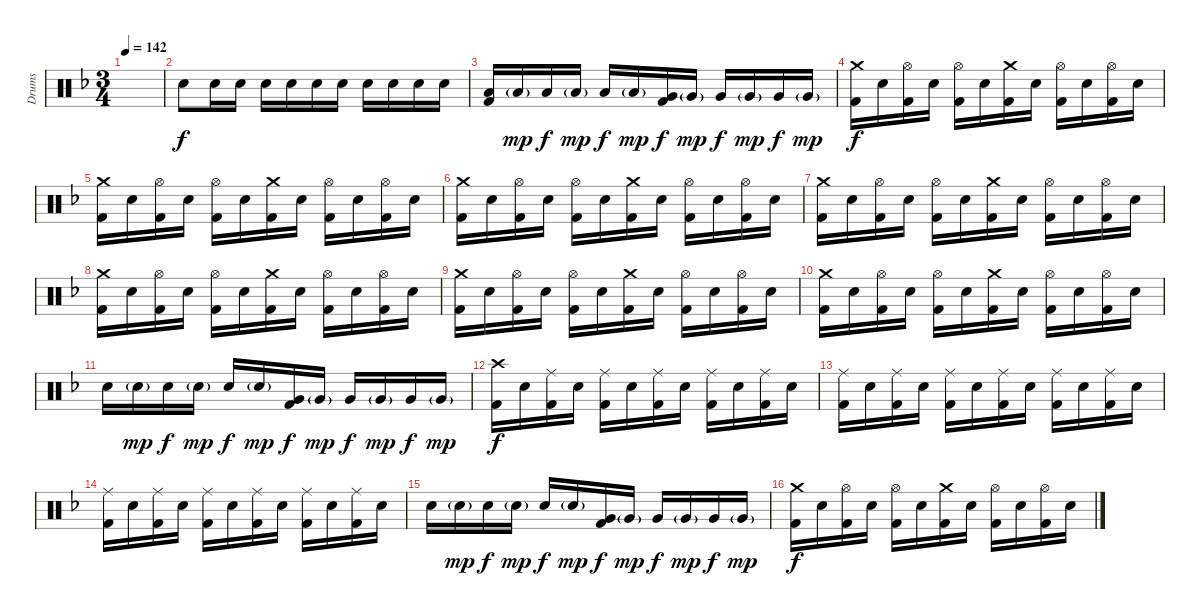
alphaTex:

\track ("Drums" "Drums") {instrument percussion}
\staff {score}
\articulation defaults
\ts (3 4)
\tempo 142
\clef neutral
\ks dminor
|
"Electric Snare (hit)".8 "Electric Snare (hit)".16 "Electric Snare (hit)".16 "Electric Snare (hit)".16 "Electric Snare (hit)".16 "Electric Snare (hit)".16 "Electric Snare (hit)".16 "Electric Snare (hit)".16 "Electric Snare (hit)".16 "Electric Snare (hit)".16 "Electric Snare (hit)".16 |
("Low Tom (hit)" "Kick (hit) 2").16 "Low Tom (hit)"{g}.16{dy mp} "Low Tom (hit)".16{dy f} "Low Tom (hit)"{g}.16{dy mp} "Low Tom (hit)".16{dy f} "Low Tom (hit)"{g}.16{dy mp} ("Very Low Tom (hit)" "Kick (hit) 2").16{dy f} "Very Low Tom (hit)"{g}.16{dy mp} "Very Low Tom (hit)".16{dy f} "Very Low Tom (hit)"{g}.16{dy mp} "Very Low Tom (hit)".16{dy f} "Very Low Tom (hit)"{g}.16{dy mp} |
("Crash medium (hit)" "Kick (hit) 2").16{dy f} "Electric Snare (hit)".16 ("Hi-Hat (open)" "Kick (hit) 2").16 "Electric Snare (hit)".16 ("Hi-Hat (open)" "Kick (hit) 2").16 "Electric Snare (hit)".16 ("Crash medium (hit)" "Kick (hit) 2").16 "Electric Snare (hit)".16 ("Hi-Hat (open)" "Kick (hit) 2").16 "Electric Snare (hit)".16 ("Hi-Hat (open)" "Kick (hit) 2").16 "Electric Snare (hit)".16 |
("Crash medium (hit)" "Kick (hit) 2").16 "Electric Snare (hit)".16 ("Hi-Hat (open)" "Kick (hit) 2").16 "Electric Snare (hit)".16 ("Hi-Hat (open)" "Kick (hit) 2").16 "Electric Snare (hit)".16 ("Crash medium (hit)" "Kick (hit) 2").16 "Electric Snare (hit)".16 ("Hi-Hat (open)" "Kick (hit) 2").16 "Electric Snare (hit)".16 ("Hi-Hat (open)" "Kick (hit) 2").16 "Electric Snare (hit)".16 |
("Crash medium (hit)" "Kick (hit) 2").16 "Electric Snare (hit)".16 ("Hi-Hat (open)" "Kick (hit) 2").16 "Electric Snare (hit)".16 ("Hi-Hat (open)" "Kick (hit) 2").16 "Electric Snare (hit)".16 ("Crash medium (hit)" "Kick (hit) 2").16 "Electric Snare (hit)".16 ("Hi-Hat (open)" "Kick (hit) 2").16 "Electric Snare (hit)".16 ("Hi-Hat (open)" "Kick (hit) 2").16 "Electric Snare (hit)".16 |
("Crash medium (hit)" "Kick (hit) 2").16 "Electric Snare (hit)".16 ("Hi-Hat (open)" "Kick (hit) 2").16 "Electric Snare (hit)".16 ("Hi-Hat (open)" "Kick (hit) 2").16 "Electric Snare (hit)".16 ("Crash medium (hit)" "Kick (hit) 2").16 "Electric Snare (hit)".16 ("Hi-Hat (open)" "Kick (hit) 2").16 "Electric Snare (hit)".16 ("Hi-Hat (open)" "Kick (hit) 2").16 "Electric Snare (hit)".16 |
("Crash medium (hit)" "Kick (hit) 2").16 "Electric Snare (hit)".16 ("Hi-Hat (open)" "Kick (hit) 2").16 "Electric Snare (hit)".16 ("Hi-Hat (open)" "Kick (hit) 2").16 "Electric Snare (hit)".16 ("Crash medium (hit)" "Kick (hit) 2").16 "Electric Snare (hit)".16 ("Hi-Hat (open)" "Kick (hit) 2").16 "Electric Snare (hit)".16 ("Hi-Hat (open)" "Kick (hit) 2").16 "Electric Snare (hit)".16 |
("Crash medium (hit)" "Kick (hit) 2").16 "Electric Snare (hit)".16 ("Hi-Hat (open)" "Kick (hit) 2").16 "Electric Snare (hit)".16 ("Hi-Hat (open)" "Kick (hit) 2").16 "Electric Snare (hit)".16 ("Crash medium (hit)" "Kick (hit) 2").16 "Electric Snare (hit)".16 ("Hi-Hat (open)" "Kick (hit) 2").16 "Electric Snare (hit)".16 ("Hi-Hat (open)" "Kick (hit) 2").16 "Electric Snare (hit)".16 |
("Crash medium (hit)" "Kick (hit) 2").16 "Electric Snare (hit)".16 ("Hi-Hat (open)" "Kick (hit) 2").16 "Electric Snare (hit)".16 ("Hi-Hat (open)" "Kick (hit) 2").16 "Electric Snare (hit)".16 ("Crash medium (hit)" "Kick (hit) 2").16 "Electric Snare (hit)".16 ("Hi-Hat (open)" "Kick (hit) 2").16 "Electric Snare (hit)".16 ("Hi-Hat (open)" "Kick (hit) 2").16 "Electric Snare (hit)".16 |
"Electric Snare (hit)".16 "Electric Snare (hit)"{g}.16{dy mp} "Electric Snare (hit)".16{dy f} "Electric Snare (hit)"{g}.16{dy mp} "Electric Snare (hit)".16{dy f} "Electric Snare (hit)"{g}.16{dy mp} ("Very Low Tom (hit)" "Kick (hit) 2").16{dy f} "Very Low Tom (hit)"{g}.16{dy mp} "Very Low Tom (hit)".16{dy f} "Very Low Tom (hit)"{g}.16{dy mp} "Very Low Tom (hit)".16{dy f} "Very Low Tom (hit)"{g}.16{dy mp} |
("Crash high (hit)" "Kick (hit) 2").16{dy f} "Electric Snare (hit)".16 ("Ride (middle)" "Kick (hit) 2").16 "Electric Snare (hit)".16 ("Ride (middle)" "Kick (hit) 2").16 "Electric Snare (hit)".16 ("Ride (middle)" "Kick (hit) 2").16 "Electric Snare (hit)".16 ("Ride (middle)" "Kick (hit) 2").16 "Electric Snare (hit)".16 ("Ride (middle)" "Kick (hit) 2").16 "Electric Snare (hit)".16 |
("Ride (middle)" "Kick (hit) 2").16 "Electric Snare (hit)".16 ("Ride (middle)" "Kick (hit) 2").16 "Electric Snare (hit)".16 ("Ride (middle)" "Kick (hit) 2").16 "Electric Snare (hit)".16 ("Ride (middle)" "Kick (hit) 2").16 "Electric Snare (hit)".16 ("Ride (middle)" "Kick (hit) 2").16 "Electric Snare (hit)".16 ("Ride (middle)" "Kick (hit) 2").16 "Electric Snare (hit)".16 |
("Ride (middle)" "Kick (hit) 2").16 "Electric Snare (hit)".16 ("Ride (middle)" "Kick (hit) 2").16 "Electric Snare (hit)".16 ("Ride (middle)" "Kick (hit) 2").16 "Electric Snare (hit)".16 ("Ride (middle)" "Kick (hit) 2").16 "Electric Snare (hit)".16 ("Ride (middle)" "Kick (hit) 2").16 "Electric Snare (hit)".16 ("Ride (middle)" "Kick (hit) 2").16 "Electric Snare (hit)".16 |
"Electric Snare (hit)".16 "Electric Snare (hit)"{g}.16{dy mp} "Electric Snare (hit)".16{dy f} "Electric Snare (hit)"{g}.16{dy mp} "Electric Snare (hit)".16{dy f} "Electric Snare (hit)"{g}.16{dy mp} ("Very Low Tom (hit)" "Kick (hit) 2").16{dy f} "Very Low Tom (hit)"{g}.16{dy mp} "Very Low Tom (hit)".16{dy f} "Very Low Tom (hit)"{g}.16{dy mp} "Very Low Tom (hit)".16{dy f} "Very Low Tom (hit)"{g}.16{dy mp} |
("Crash medium (hit)" "Kick (hit) 2").16{dy f} "Electric Snare (hit)".16 ("Hi-Hat (open)" "Kick (hit) 2").16 "Electric Snare (hit)".16 ("Hi-Hat (open)" "Kick (hit) 2").16 "Electric Snare (hit)".16 ("Crash medium (hit)" "Kick (hit) 2").16 "Electric Snare (hit)".16 ("Hi-Hat (open)" "Kick (hit) 2").16 "Electric Snare (hit)".16 ("Hi-Hat (open)" "Kick (hit) 2").16 "Electric Snare (hit)".16
